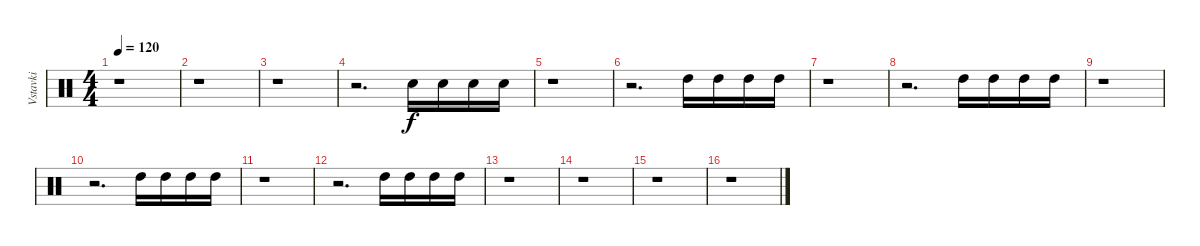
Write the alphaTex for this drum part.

\track ("Vstavki" "Vstavki") {instrument percussion}
\staff {score}
\articulation defaults
\ts (4 4)
\tempo 120
\clef neutral
\ks c
r.1{dy f} |
r.1 |
r.1 |
r.2{d} "Snare (hit) 2".16 "Snare (hit) 2".16 "Snare (hit) 2".16 "Snare (hit) 2".16 |
r.1 |
r.2{d} "High Tom (hit)".16 "High Tom (hit)".16 "High Tom (hit)".16 "High Tom (hit)".16 |
r.1 |
r.2{d} "High Tom (hit)".16 "High Tom (hit)".16 "High Tom (hit)".16 "High Tom (hit)".16 |
r.1 |
r.2{d} "High Tom (hit)".16 "High Tom (hit)".16 "High Tom (hit)".16 "High Tom (hit)".16 |
r.1 |
r.2{d} "High Tom (hit)".16 "High Tom (hit)".16 "High Tom (hit)".16 "High Tom (hit)".16 |
r.1 |
r.1 |
r.1 |
r.1
